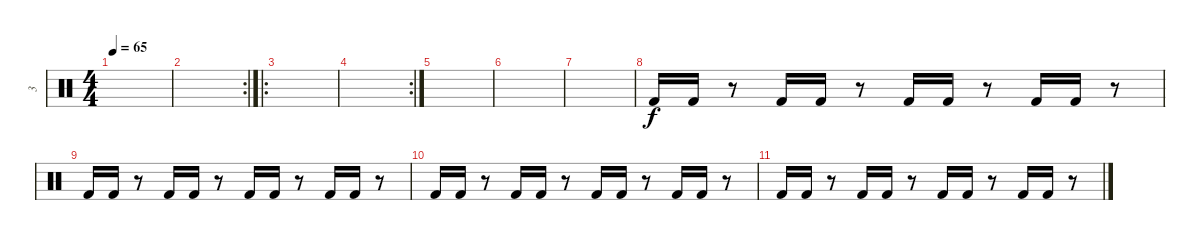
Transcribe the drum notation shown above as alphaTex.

\track ("3" "3") {instrument percussion}
\staff {score}
\articulation defaults
\ts (4 4)
\tempo 65
\clef neutral
\ks c
|
\rc 2
|
\ro
|
\rc 2
|
|
|
|
"Kick (hit) 2".16 "Kick (hit) 2".16 r.8 "Kick (hit) 2".16 "Kick (hit) 2".16 r.8 "Kick (hit) 2".16 "Kick (hit) 2".16 r.8 "Kick (hit) 2".16 "Kick (hit) 2".16 r.8 |
"Kick (hit) 2".16 "Kick (hit) 2".16 r.8 "Kick (hit) 2".16 "Kick (hit) 2".16 r.8 "Kick (hit) 2".16 "Kick (hit) 2".16 r.8 "Kick (hit) 2".16 "Kick (hit) 2".16 r.8 |
"Kick (hit) 2".16 "Kick (hit) 2".16 r.8 "Kick (hit) 2".16 "Kick (hit) 2".16 r.8 "Kick (hit) 2".16 "Kick (hit) 2".16 r.8 "Kick (hit) 2".16 "Kick (hit) 2".16 r.8 |
"Kick (hit) 2".16 "Kick (hit) 2".16 r.8 "Kick (hit) 2".16 "Kick (hit) 2".16 r.8 "Kick (hit) 2".16 "Kick (hit) 2".16 r.8 "Kick (hit) 2".16 "Kick (hit) 2".16 r.8
